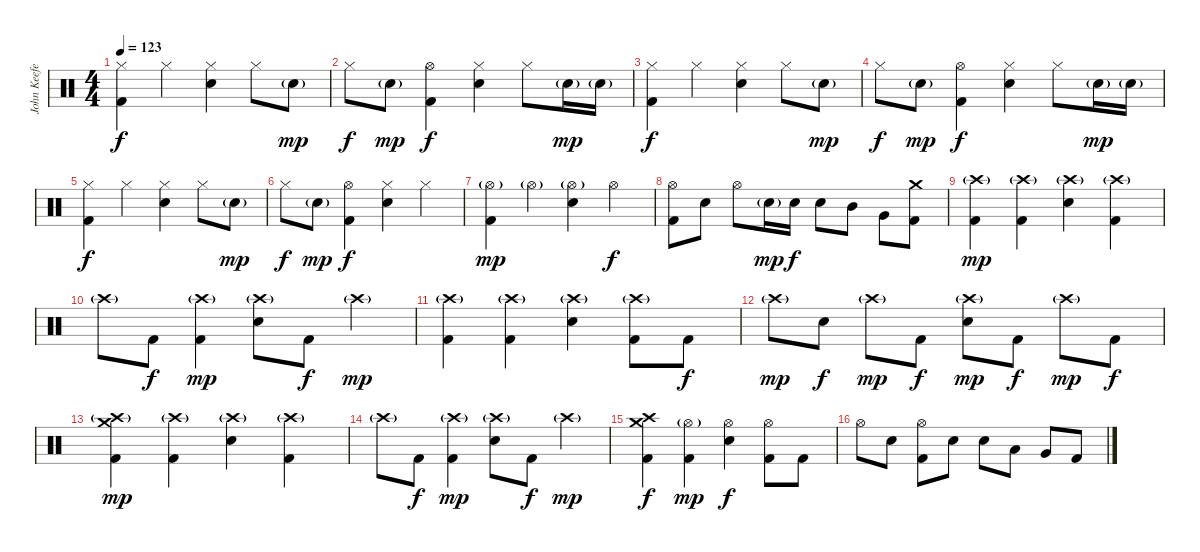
\track ("John Keefe - Drums" "John Keefe") {instrument percussion}
\staff {score}
\articulation defaults
\ts (4 4)
\tempo 123
\clef neutral
\ks c
("Hi-Hat (closed)" "Kick (hit) 2").4{dy f} "Hi-Hat (closed)".4 ("Hi-Hat (closed)" "Snare (hit) 2").4 "Hi-Hat (closed)".8 "Snare (hit) 2"{g}.8{dy mp} |
"Hi-Hat (closed)".8{dy f} "Snare (hit) 2"{g}.8{dy mp} ("Hi-Hat (open)" "Kick (hit) 2").4{dy f} ("Hi-Hat (closed)" "Snare (hit) 2").4 "Hi-Hat (closed)".8 "Snare (hit) 2"{g}.16{dy mp} "Snare (hit) 2"{g}.16 |
("Hi-Hat (closed)" "Kick (hit) 2").4{dy f} "Hi-Hat (closed)".4 ("Hi-Hat (closed)" "Snare (hit) 2").4 "Hi-Hat (closed)".8 "Snare (hit) 2"{g}.8{dy mp} |
"Hi-Hat (closed)".8{dy f} "Snare (hit) 2"{g}.8{dy mp} ("Hi-Hat (open)" "Kick (hit) 2").4{dy f} ("Hi-Hat (closed)" "Snare (hit) 2").4 "Hi-Hat (closed)".8 "Snare (hit) 2"{g}.16{dy mp} "Snare (hit) 2"{g}.16 |
("Hi-Hat (closed)" "Kick (hit) 2").4{dy f} "Hi-Hat (closed)".4 ("Hi-Hat (closed)" "Snare (hit) 2").4 "Hi-Hat (closed)".8 "Snare (hit) 2"{g}.8{dy mp} |
"Hi-Hat (closed)".8{dy f} "Snare (hit) 2"{g}.8{dy mp} ("Hi-Hat (open)" "Kick (hit) 2").4{dy f} ("Hi-Hat (closed)" "Snare (hit) 2").4 "Hi-Hat (closed)".4 |
("Hi-Hat (open)"{g} "Kick (hit) 2").4{dy mp} "Hi-Hat (open)"{g}.4 ("Hi-Hat (open)"{g} "Snare (hit) 2").4 "Hi-Hat (open)".4{dy f} |
("Hi-Hat (open)" "Kick (hit) 2").8 "Snare (hit) 2".8 "Hi-Hat (open)".8 "Snare (hit) 2"{g}.16{dy mp} "Snare (hit) 2".16{dy f} "Snare (hit) 2".8 "Mid Tom (hit)".8 "Very Low Tom (hit)".8 ("Crash medium (hit)" "Kick (hit) 2").8 |
("Crash high (hit)"{g} "Kick (hit) 2").4{dy mp} ("Crash high (hit)"{g} "Kick (hit) 2").4 ("Crash high (hit)"{g} "Snare (hit) 2").4 ("Crash high (hit)"{g} "Kick (hit) 2").4 |
"Crash high (hit)"{g}.8 "Kick (hit) 2".8{dy f} ("Crash high (hit)"{g} "Kick (hit) 2").4{dy mp} ("Crash high (hit)"{g} "Snare (hit) 2").8 "Kick (hit) 2".8{dy f} "Crash high (hit)"{g}.4{dy mp} |
("Crash high (hit)"{g} "Kick (hit) 2").4 ("Crash high (hit)"{g} "Kick (hit) 2").4 ("Crash high (hit)"{g} "Snare (hit) 2").4 ("Crash high (hit)"{g} "Kick (hit) 2").8 "Kick (hit) 2".8{dy f} |
"Crash high (hit)"{g}.8{dy mp} "Snare (hit) 2".8{dy f} "Crash high (hit)"{g}.8{dy mp} "Kick (hit) 2".8{dy f} ("Crash high (hit)"{g} "Snare (hit) 2").8{dy mp} "Kick (hit) 2".8{dy f} "Crash high (hit)"{g}.8{dy mp} "Kick (hit) 2".8{dy f} |
("Crash high (hit)"{g} "Crash medium (hit)" "Kick (hit) 2").4{dy mp} ("Crash high (hit)"{g} "Kick (hit) 2").4 ("Crash high (hit)"{g} "Snare (hit) 2").4 ("Crash high (hit)"{g} "Kick (hit) 2").4 |
"Crash high (hit)"{g}.8 "Kick (hit) 2".8{dy f} ("Crash high (hit)"{g} "Kick (hit) 2").4{dy mp} ("Crash high (hit)"{g} "Snare (hit) 2").8 "Kick (hit) 2".8{dy f} "Crash high (hit)"{g}.4{dy mp} |
("Crash high (hit)" "Crash medium (hit)" "Kick (hit) 2").4{dy f} ("Hi-Hat (open)"{g} "Kick (hit) 2").4{dy mp} ("Hi-Hat (open)" "Snare (hit) 2").4{dy f} ("Hi-Hat (open)" "Kick (hit) 2").8 "Kick (hit) 2".8 |
"Hi-Hat (open)".8 "Snare (hit) 2".8 ("Hi-Hat (open)" "Kick (hit) 2").8 "Snare (hit) 2".8 "Snare (hit) 2".8 "Low Tom (hit)".8 "Very Low Tom (hit)".8 "Kick (hit) 2".8
